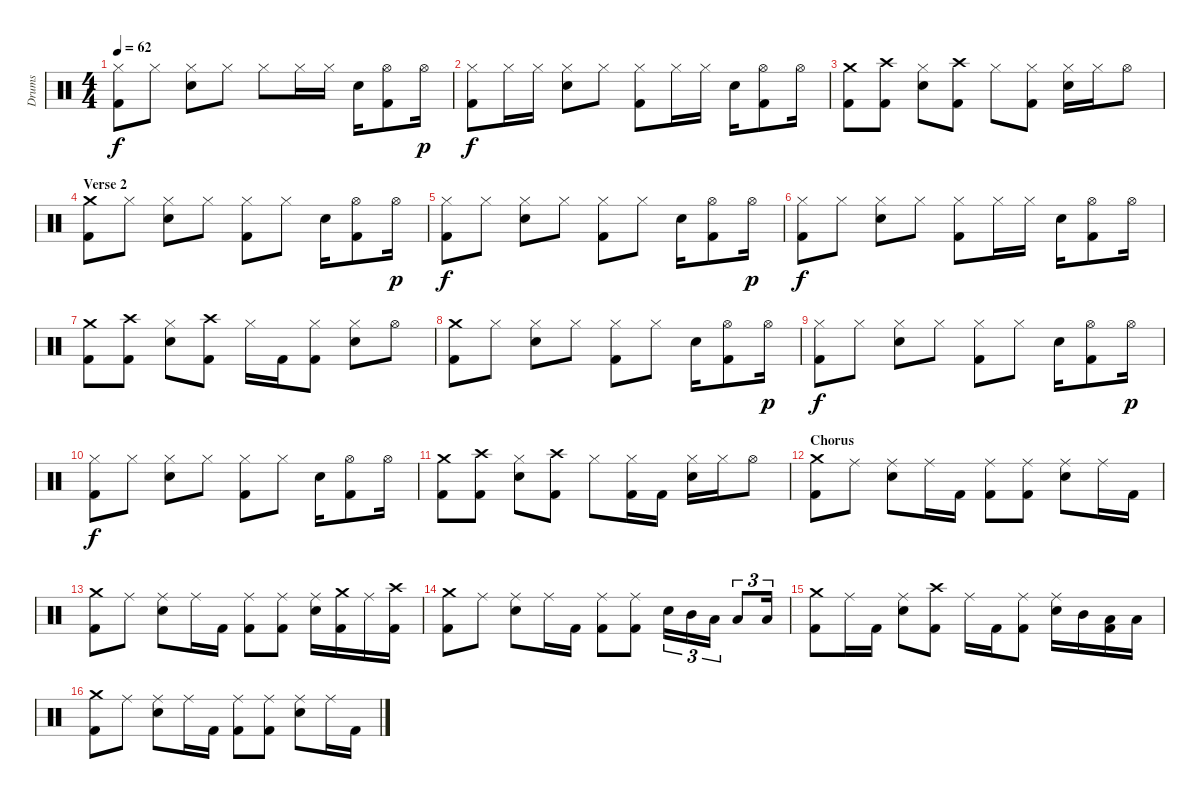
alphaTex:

\track ("Drums" "Drums") {instrument percussion}
\staff {score}
\articulation defaults
\ts (4 4)
\tempo 62
\clef neutral
\ks c
("Hi-Hat (closed)" "Kick (hit) 2").8{dy f} "Hi-Hat (closed)".8 ("Hi-Hat (closed)" "Electric Snare (hit)").8 "Hi-Hat (closed)".8 "Hi-Hat (closed)".8 "Hi-Hat (closed)".16 "Hi-Hat (closed)".16 "Electric Snare (hit)".16 ("Hi-Hat (open)" "Kick (hit) 2").8 "Hi-Hat (open)".16{dy p} |
("Hi-Hat (closed)" "Kick (hit) 2").8{dy f} "Hi-Hat (closed)".16 "Hi-Hat (closed)".16 ("Hi-Hat (closed)" "Electric Snare (hit)").8 "Hi-Hat (closed)".8 ("Hi-Hat (closed)" "Kick (hit) 2").8 "Hi-Hat (closed)".16 "Hi-Hat (closed)".16 "Electric Snare (hit)".16 ("Hi-Hat (open)" "Kick (hit) 2").8 "Hi-Hat (open)".16 |
("Crash medium (hit)" "Kick (hit) 2").8 ("Crash high (hit)" "Kick (hit) 2").8 ("Hi-Hat (closed)" "Electric Snare (hit)").8 ("Crash high (hit)" "Kick (hit) 2").8 "Hi-Hat (closed)".8 ("Hi-Hat (closed)" "Kick (hit) 2").8 ("Hi-Hat (closed)" "Electric Snare (hit)").16 "Hi-Hat (closed)".16 "Hi-Hat (open)".8 |
\section ("" "Verse 2")
("Crash medium (hit)" "Kick (hit) 2").8 "Hi-Hat (closed)".8 ("Hi-Hat (closed)" "Electric Snare (hit)").8 "Hi-Hat (closed)".8 ("Hi-Hat (closed)" "Kick (hit) 2").8 "Hi-Hat (closed)".8 "Electric Snare (hit)".16 ("Hi-Hat (open)" "Kick (hit) 2").8 "Hi-Hat (open)".16{dy p} |
("Hi-Hat (closed)" "Kick (hit) 2").8{dy f} "Hi-Hat (closed)".8 ("Hi-Hat (closed)" "Electric Snare (hit)").8 "Hi-Hat (closed)".8 ("Hi-Hat (closed)" "Kick (hit) 2").8 "Hi-Hat (closed)".8 "Electric Snare (hit)".16 ("Hi-Hat (open)" "Kick (hit) 2").8 "Hi-Hat (open)".16{dy p} |
("Hi-Hat (closed)" "Kick (hit) 2").8{dy f} "Hi-Hat (closed)".8 ("Hi-Hat (closed)" "Electric Snare (hit)").8 "Hi-Hat (closed)".8 ("Hi-Hat (closed)" "Kick (hit) 2").8 "Hi-Hat (closed)".16 "Hi-Hat (closed)".16 "Electric Snare (hit)".16 ("Hi-Hat (open)" "Kick (hit) 2").8 "Hi-Hat (open)".16 |
("Crash medium (hit)" "Kick (hit) 2").8 ("Crash high (hit)" "Kick (hit) 2").8 ("Hi-Hat (closed)" "Electric Snare (hit)").8 ("Crash high (hit)" "Kick (hit) 2").8 "Hi-Hat (closed)".16 "Kick (hit) 2".16 ("Hi-Hat (closed)" "Kick (hit) 2").8 ("Hi-Hat (closed)" "Electric Snare (hit)").8 "Hi-Hat (open)".8 |
("Crash medium (hit)" "Kick (hit) 2").8 "Hi-Hat (closed)".8 ("Hi-Hat (closed)" "Electric Snare (hit)").8 "Hi-Hat (closed)".8 ("Hi-Hat (closed)" "Kick (hit) 2").8 "Hi-Hat (closed)".8 "Electric Snare (hit)".16 ("Hi-Hat (open)" "Kick (hit) 2").8 "Hi-Hat (open)".16{dy p} |
("Hi-Hat (closed)" "Kick (hit) 2").8{dy f} "Hi-Hat (closed)".8 ("Hi-Hat (closed)" "Electric Snare (hit)").8 "Hi-Hat (closed)".8 ("Hi-Hat (closed)" "Kick (hit) 2").8 "Hi-Hat (closed)".8 "Electric Snare (hit)".16 ("Hi-Hat (open)" "Kick (hit) 2").8 "Hi-Hat (open)".16{dy p} |
("Hi-Hat (closed)" "Kick (hit) 2").8{dy f} "Hi-Hat (closed)".8 ("Hi-Hat (closed)" "Electric Snare (hit)").8 "Hi-Hat (closed)".8 ("Hi-Hat (closed)" "Kick (hit) 2").8 "Hi-Hat (closed)".8 "Electric Snare (hit)".16 ("Hi-Hat (open)" "Kick (hit) 2").8 "Hi-Hat (open)".16 |
("Crash medium (hit)" "Kick (hit) 2").8 ("Crash high (hit)" "Kick (hit) 2").8 ("Hi-Hat (closed)" "Electric Snare (hit)").8 ("Crash high (hit)" "Kick (hit) 2").8 "Hi-Hat (closed)".8 ("Hi-Hat (closed)" "Kick (hit) 2").16 "Kick (hit) 2".16 ("Hi-Hat (closed)" "Electric Snare (hit)").16 "Hi-Hat (closed)".16 "Hi-Hat (open)".8 |
\section ("" "Chorus")
("Crash medium (hit)" "Kick (hit) 2").8 "Ride (middle)".8 ("Ride (middle)" "Electric Snare (hit)").8 "Ride (middle)".16 "Kick (hit) 2".16 ("Ride (middle)" "Kick (hit) 2").8 ("Ride (middle)" "Kick (hit) 2").8 ("Ride (middle)" "Electric Snare (hit)").8 "Ride (middle)".16 "Kick (hit) 2".16 |
("Crash medium (hit)" "Kick (hit) 2").8 "Ride (middle)".8 ("Ride (middle)" "Electric Snare (hit)").8 "Ride (middle)".16 "Kick (hit) 2".16 ("Ride (middle)" "Kick (hit) 2").8 ("Ride (middle)" "Kick (hit) 2").8 ("Ride (middle)" "Electric Snare (hit)").16 ("Crash medium (hit)" "Kick (hit) 2").16 "Ride (middle)".16 ("Crash high (hit)" "Kick (hit) 2").16 |
("Crash medium (hit)" "Kick (hit) 2").8 "Ride (middle)".8 ("Ride (middle)" "Electric Snare (hit)").8 "Ride (middle)".16 "Kick (hit) 2".16 ("Ride (middle)" "Kick (hit) 2").8 ("Ride (middle)" "Kick (hit) 2").8 "Electric Snare (hit)".16{tu (3 2)} "Mid Tom (hit)".16{tu (3 2)} "Low Tom (hit)".16{tu (3 2)} "Low Floor Tom (hit)".8{tu (3 2)} "Low Floor Tom (hit)".16{tu (3 2)} |
("Crash medium (hit)" "Kick (hit) 2").8 "Ride (middle)".16 "Kick (hit) 2".16 ("Ride (middle)" "Electric Snare (hit)").8 ("Crash high (hit)" "Kick (hit) 2").8 "Ride (middle)".16 "Kick (hit) 2".16 ("Ride (middle)" "Kick (hit) 2").8 ("Ride (middle)" "Electric Snare (hit)").16 "Mid Tom (hit)".16 ("Low Tom (hit)" "Kick (hit) 2").16 "Low Tom (hit)".16 |
("Crash medium (hit)" "Kick (hit) 2").8 "Ride (middle)".8 ("Ride (middle)" "Electric Snare (hit)").8 "Ride (middle)".16 "Kick (hit) 2".16 ("Ride (middle)" "Kick (hit) 2").8 ("Ride (middle)" "Kick (hit) 2").8 ("Ride (middle)" "Electric Snare (hit)").8 "Ride (middle)".16 "Kick (hit) 2".16
